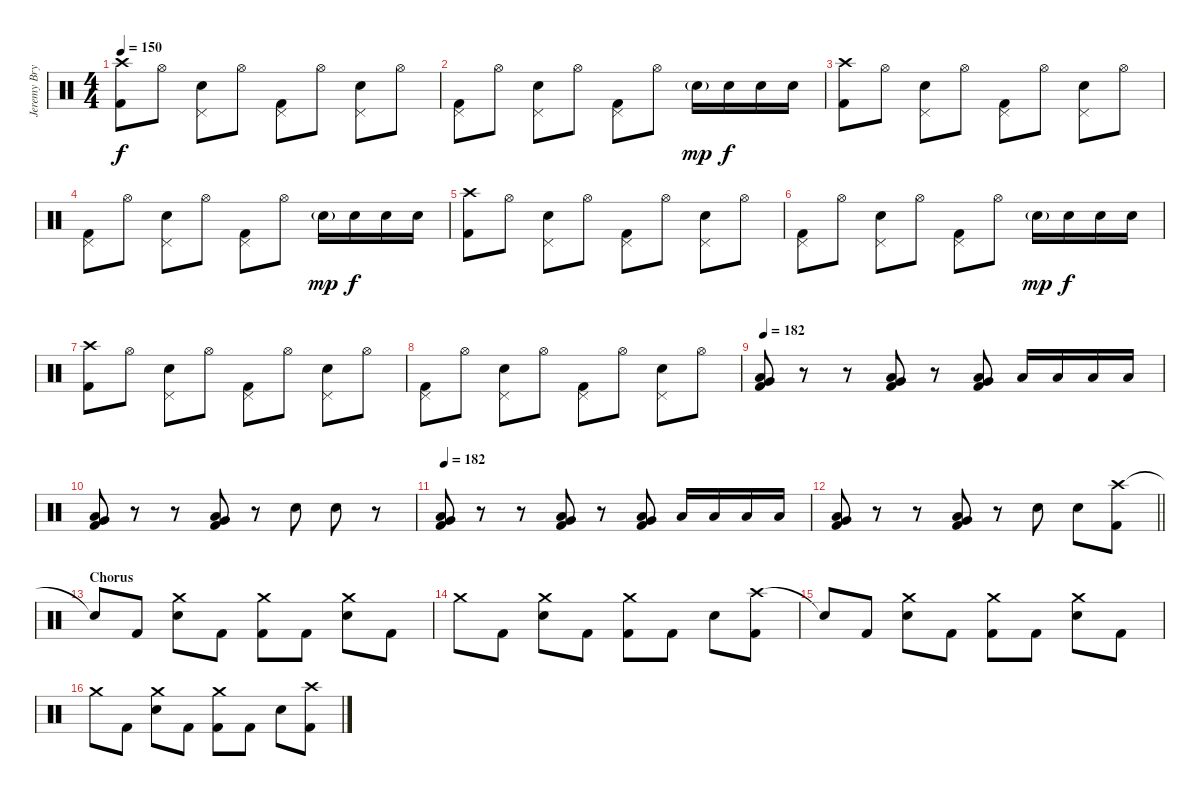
\track ("Jeremy Bryan - Drums" "Jeremy Bry") {instrument percussion}
\staff {score}
\articulation defaults
\ts (4 4)
\tempo 150
\clef neutral
\ks c
("Crash high (hit)" "Kick (hit) 2").8{dy f} "Hi-Hat (open)".8 ("Pedal Hi-Hat (hit)" "Electric Snare (hit)").8 "Hi-Hat (open)".8 ("Pedal Hi-Hat (hit)" "Kick (hit) 2").8 "Hi-Hat (open)".8 ("Pedal Hi-Hat (hit)" "Electric Snare (hit)").8 "Hi-Hat (open)".8 |
("Pedal Hi-Hat (hit)" "Kick (hit) 2").8 "Hi-Hat (open)".8 ("Pedal Hi-Hat (hit)" "Electric Snare (hit)").8 "Hi-Hat (open)".8 ("Pedal Hi-Hat (hit)" "Kick (hit) 2").8 "Hi-Hat (open)".8 "Electric Snare (hit)"{g}.16{dy mp} "Electric Snare (hit)".16{dy f} "Electric Snare (hit)".16 "Electric Snare (hit)".16 |
("Crash high (hit)" "Kick (hit) 2").8 "Hi-Hat (open)".8 ("Pedal Hi-Hat (hit)" "Electric Snare (hit)").8 "Hi-Hat (open)".8 ("Pedal Hi-Hat (hit)" "Kick (hit) 2").8 "Hi-Hat (open)".8 ("Pedal Hi-Hat (hit)" "Electric Snare (hit)").8 "Hi-Hat (open)".8 |
("Pedal Hi-Hat (hit)" "Kick (hit) 2").8 "Hi-Hat (open)".8 ("Pedal Hi-Hat (hit)" "Electric Snare (hit)").8 "Hi-Hat (open)".8 ("Pedal Hi-Hat (hit)" "Kick (hit) 2").8 "Hi-Hat (open)".8 "Electric Snare (hit)"{g}.16{dy mp} "Electric Snare (hit)".16{dy f} "Electric Snare (hit)".16 "Electric Snare (hit)".16 |
("Crash high (hit)" "Kick (hit) 2").8 "Hi-Hat (open)".8 ("Pedal Hi-Hat (hit)" "Electric Snare (hit)").8 "Hi-Hat (open)".8 ("Pedal Hi-Hat (hit)" "Kick (hit) 2").8 "Hi-Hat (open)".8 ("Pedal Hi-Hat (hit)" "Electric Snare (hit)").8 "Hi-Hat (open)".8 |
("Pedal Hi-Hat (hit)" "Kick (hit) 2").8 "Hi-Hat (open)".8 ("Pedal Hi-Hat (hit)" "Electric Snare (hit)").8 "Hi-Hat (open)".8 ("Pedal Hi-Hat (hit)" "Kick (hit) 2").8 "Hi-Hat (open)".8 "Electric Snare (hit)"{g}.16{dy mp} "Electric Snare (hit)".16{dy f} "Electric Snare (hit)".16 "Electric Snare (hit)".16 |
("Crash high (hit)" "Kick (hit) 2").8 "Hi-Hat (open)".8 ("Pedal Hi-Hat (hit)" "Electric Snare (hit)").8 "Hi-Hat (open)".8 ("Pedal Hi-Hat (hit)" "Kick (hit) 2").8 "Hi-Hat (open)".8 ("Pedal Hi-Hat (hit)" "Electric Snare (hit)").8 "Hi-Hat (open)".8 |
("Pedal Hi-Hat (hit)" "Kick (hit) 2").8 "Hi-Hat (open)".8 ("Pedal Hi-Hat (hit)" "Electric Snare (hit)").8 "Hi-Hat (open)".8 ("Pedal Hi-Hat (hit)" "Kick (hit) 2").8 "Hi-Hat (open)".8 ("Pedal Hi-Hat (hit)" "Electric Snare (hit)").8 "Hi-Hat (open)".8 |
\tempo 182
("Low Floor Tom (hit)" "Very Low Tom (hit)" "Kick (hit) 2").8 r.8 r.8 ("Low Floor Tom (hit)" "Very Low Tom (hit)" "Kick (hit) 2").8 r.8 ("Low Floor Tom (hit)" "Very Low Tom (hit)" "Kick (hit) 2").8 "Low Floor Tom (hit)".16 "Low Floor Tom (hit)".16 "Low Floor Tom (hit)".16 "Low Floor Tom (hit)".16 |
("Low Floor Tom (hit)" "Very Low Tom (hit)" "Kick (hit) 2").8 r.8 r.8 ("Low Floor Tom (hit)" "Very Low Tom (hit)" "Kick (hit) 2").8 r.8 "Electric Snare (hit)".8 "Electric Snare (hit)".8 r.8 |
\tempo 182
("Low Floor Tom (hit)" "Very Low Tom (hit)" "Kick (hit) 2").8 r.8 r.8 ("Low Floor Tom (hit)" "Very Low Tom (hit)" "Kick (hit) 2").8 r.8 ("Low Floor Tom (hit)" "Very Low Tom (hit)" "Kick (hit) 2").8 "Low Floor Tom (hit)".16 "Low Floor Tom (hit)".16 "Low Floor Tom (hit)".16 "Low Floor Tom (hit)".16 |
\barLineRight lightlight
("Low Floor Tom (hit)" "Very Low Tom (hit)" "Kick (hit) 2").8 r.8 r.8 ("Low Floor Tom (hit)" "Very Low Tom (hit)" "Kick (hit) 2").8 r.8 "Electric Snare (hit)".8 "Electric Snare (hit)".8 ("Crash high (hit)" "Kick (hit) 2").8 |
\section ("" "Chorus")
"Snare (hit)"{t}.8 "Kick (hit) 2".8 ("Crash medium (hit)" "Electric Snare (hit)").8 "Kick (hit) 2".8 ("Crash medium (hit)" "Kick (hit) 2").8 "Kick (hit) 2".8 ("Crash medium (hit)" "Electric Snare (hit)").8 "Kick (hit) 2".8 |
"Crash medium (hit)".8 "Kick (hit) 2".8 ("Crash medium (hit)" "Electric Snare (hit)").8 "Kick (hit) 2".8 ("Crash medium (hit)" "Kick (hit) 2").8 "Kick (hit) 2".8 "Electric Snare (hit)".8 ("Crash high (hit)" "Kick (hit) 2").8 |
"Snare (hit)"{t}.8 "Kick (hit) 2".8 ("Crash medium (hit)" "Electric Snare (hit)").8 "Kick (hit) 2".8 ("Crash medium (hit)" "Kick (hit) 2").8 "Kick (hit) 2".8 ("Crash medium (hit)" "Electric Snare (hit)").8 "Kick (hit) 2".8 |
"Crash medium (hit)".8 "Kick (hit) 2".8 ("Crash medium (hit)" "Electric Snare (hit)").8 "Kick (hit) 2".8 ("Crash medium (hit)" "Kick (hit) 2").8 "Kick (hit) 2".8 "Electric Snare (hit)".8 ("Crash high (hit)" "Kick (hit) 2").8
